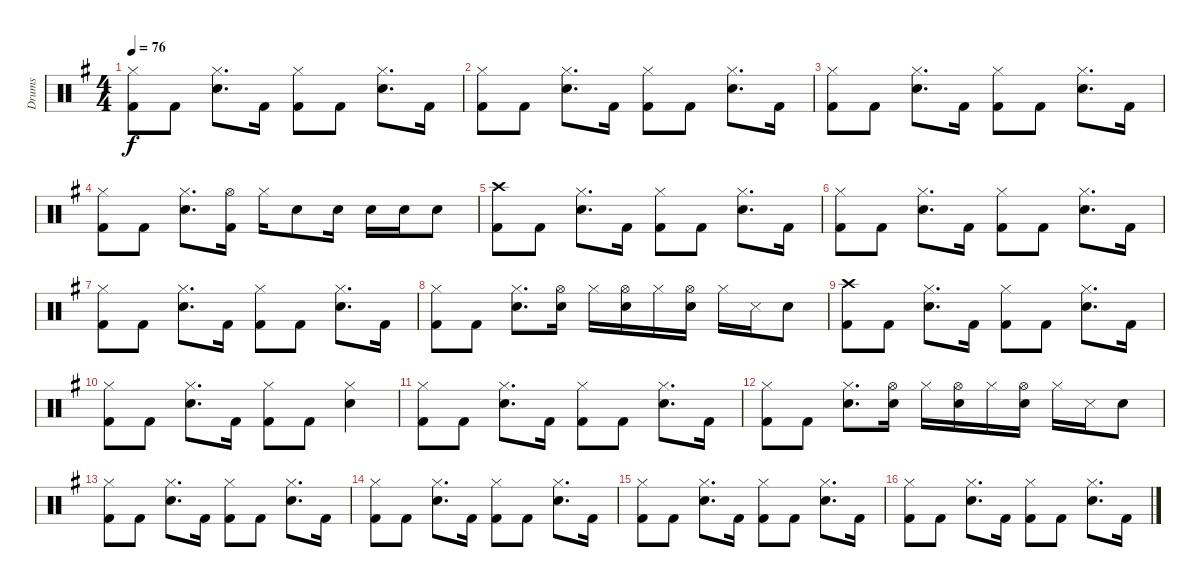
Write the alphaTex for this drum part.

\track ("Drums" "Drums") {instrument percussion}
\staff {score}
\articulation defaults
\ts (4 4)
\tempo 76
\clef neutral
\ks eminor
("Hi-Hat (closed)" "Kick (hit) 2").8{dy f} "Kick (hit) 2".8 ("Hi-Hat (closed)" "Snare (hit) 2").8{d} "Kick (hit) 2".16 ("Hi-Hat (closed)" "Kick (hit) 2").8 "Kick (hit) 2".8 ("Hi-Hat (closed)" "Snare (hit) 2").8{d} "Kick (hit) 2".16 |
("Hi-Hat (closed)" "Kick (hit) 2").8 "Kick (hit) 2".8 ("Hi-Hat (closed)" "Snare (hit) 2").8{d} "Kick (hit) 2".16 ("Hi-Hat (closed)" "Kick (hit) 2").8 "Kick (hit) 2".8 ("Hi-Hat (closed)" "Snare (hit) 2").8{d} "Kick (hit) 2".16 |
("Hi-Hat (closed)" "Kick (hit) 2").8 "Kick (hit) 2".8 ("Hi-Hat (closed)" "Snare (hit) 2").8{d} "Kick (hit) 2".16 ("Hi-Hat (closed)" "Kick (hit) 2").8 "Kick (hit) 2".8 ("Hi-Hat (closed)" "Snare (hit) 2").8{d} "Kick (hit) 2".16 |
("Hi-Hat (closed)" "Kick (hit) 2").8 "Kick (hit) 2".8 ("Hi-Hat (closed)" "Snare (hit) 2").8{d} ("Hi-Hat (open)" "Kick (hit) 2").16 "Hi-Hat (closed)".16 "Snare (hit) 2".8 "Snare (hit) 2".16 "Snare (hit) 2".16 "Snare (hit) 2".16 "Snare (hit) 2".8 |
("Crash high (hit)" "Kick (hit) 2").8 "Kick (hit) 2".8 ("Hi-Hat (closed)" "Snare (hit) 2").8{d} "Kick (hit) 2".16 ("Hi-Hat (closed)" "Kick (hit) 2").8 "Kick (hit) 2".8 ("Hi-Hat (closed)" "Snare (hit) 2").8{d} "Kick (hit) 2".16 |
("Hi-Hat (closed)" "Kick (hit) 2").8 "Kick (hit) 2".8 ("Hi-Hat (closed)" "Snare (hit) 2").8{d} "Kick (hit) 2".16 ("Hi-Hat (closed)" "Kick (hit) 2").8 "Kick (hit) 2".8 ("Hi-Hat (closed)" "Snare (hit) 2").8{d} "Kick (hit) 2".16 |
("Hi-Hat (closed)" "Kick (hit) 2").8 "Kick (hit) 2".8 ("Hi-Hat (closed)" "Snare (hit) 2").8{d} "Kick (hit) 2".16 ("Hi-Hat (closed)" "Kick (hit) 2").8 "Kick (hit) 2".8 ("Hi-Hat (closed)" "Snare (hit) 2").8{d} "Kick (hit) 2".16 |
("Hi-Hat (closed)" "Kick (hit) 2").8 "Kick (hit) 2".8 ("Hi-Hat (closed)" "Snare (hit) 2").8{d} ("Hi-Hat (open)" "Snare (hit) 2").16 "Hi-Hat (closed)".16 ("Hi-Hat (open)" "Snare (hit) 2").16 "Hi-Hat (closed)".16 ("Hi-Hat (open)" "Snare (hit) 2").16 "Hi-Hat (closed)".16 "Snare (side stick) 3".16 "Snare (hit) 2".8 |
("Crash high (hit)" "Kick (hit) 2").8 "Kick (hit) 2".8 ("Hi-Hat (closed)" "Snare (hit) 2").8{d} "Kick (hit) 2".16 ("Hi-Hat (closed)" "Kick (hit) 2").8 "Kick (hit) 2".8 ("Hi-Hat (closed)" "Snare (hit) 2").8{d} "Kick (hit) 2".16 |
("Hi-Hat (closed)" "Kick (hit) 2").8 "Kick (hit) 2".8 ("Hi-Hat (closed)" "Snare (hit) 2").8{d} "Kick (hit) 2".16 ("Hi-Hat (closed)" "Kick (hit) 2").8 "Kick (hit) 2".8 ("Hi-Hat (closed)" "Snare (hit) 2").4 |
("Hi-Hat (closed)" "Kick (hit) 2").8 "Kick (hit) 2".8 ("Hi-Hat (closed)" "Snare (hit) 2").8{d} "Kick (hit) 2".16 ("Hi-Hat (closed)" "Kick (hit) 2").8 "Kick (hit) 2".8 ("Hi-Hat (closed)" "Snare (hit) 2").8{d} "Kick (hit) 2".16 |
("Hi-Hat (closed)" "Kick (hit) 2").8 "Kick (hit) 2".8 ("Hi-Hat (closed)" "Snare (hit) 2").8{d} ("Hi-Hat (open)" "Snare (hit) 2").16 "Hi-Hat (closed)".16 ("Hi-Hat (open)" "Snare (hit) 2").16 "Hi-Hat (closed)".16 ("Hi-Hat (open)" "Snare (hit) 2").16 "Hi-Hat (closed)".16 "Snare (side stick) 3".16 "Snare (hit) 2".8 |
("Hi-Hat (closed)" "Kick (hit) 2").8 "Kick (hit) 2".8 ("Hi-Hat (closed)" "Snare (hit) 2").8{d} "Kick (hit) 2".16 ("Hi-Hat (closed)" "Kick (hit) 2").8 "Kick (hit) 2".8 ("Hi-Hat (closed)" "Snare (hit) 2").8{d} "Kick (hit) 2".16 |
("Hi-Hat (closed)" "Kick (hit) 2").8 "Kick (hit) 2".8 ("Hi-Hat (closed)" "Snare (hit) 2").8{d} "Kick (hit) 2".16 ("Hi-Hat (closed)" "Kick (hit) 2").8 "Kick (hit) 2".8 ("Hi-Hat (closed)" "Snare (hit) 2").8{d} "Kick (hit) 2".16 |
("Hi-Hat (closed)" "Kick (hit) 2").8 "Kick (hit) 2".8 ("Hi-Hat (closed)" "Snare (hit) 2").8{d} "Kick (hit) 2".16 ("Hi-Hat (closed)" "Kick (hit) 2").8 "Kick (hit) 2".8 ("Hi-Hat (closed)" "Snare (hit) 2").8{d} "Kick (hit) 2".16 |
("Hi-Hat (closed)" "Kick (hit) 2").8 "Kick (hit) 2".8 ("Hi-Hat (closed)" "Snare (hit) 2").8{d} "Kick (hit) 2".16 ("Hi-Hat (closed)" "Kick (hit) 2").8 "Kick (hit) 2".8 ("Hi-Hat (closed)" "Snare (hit) 2").8{d} "Kick (hit) 2".16
